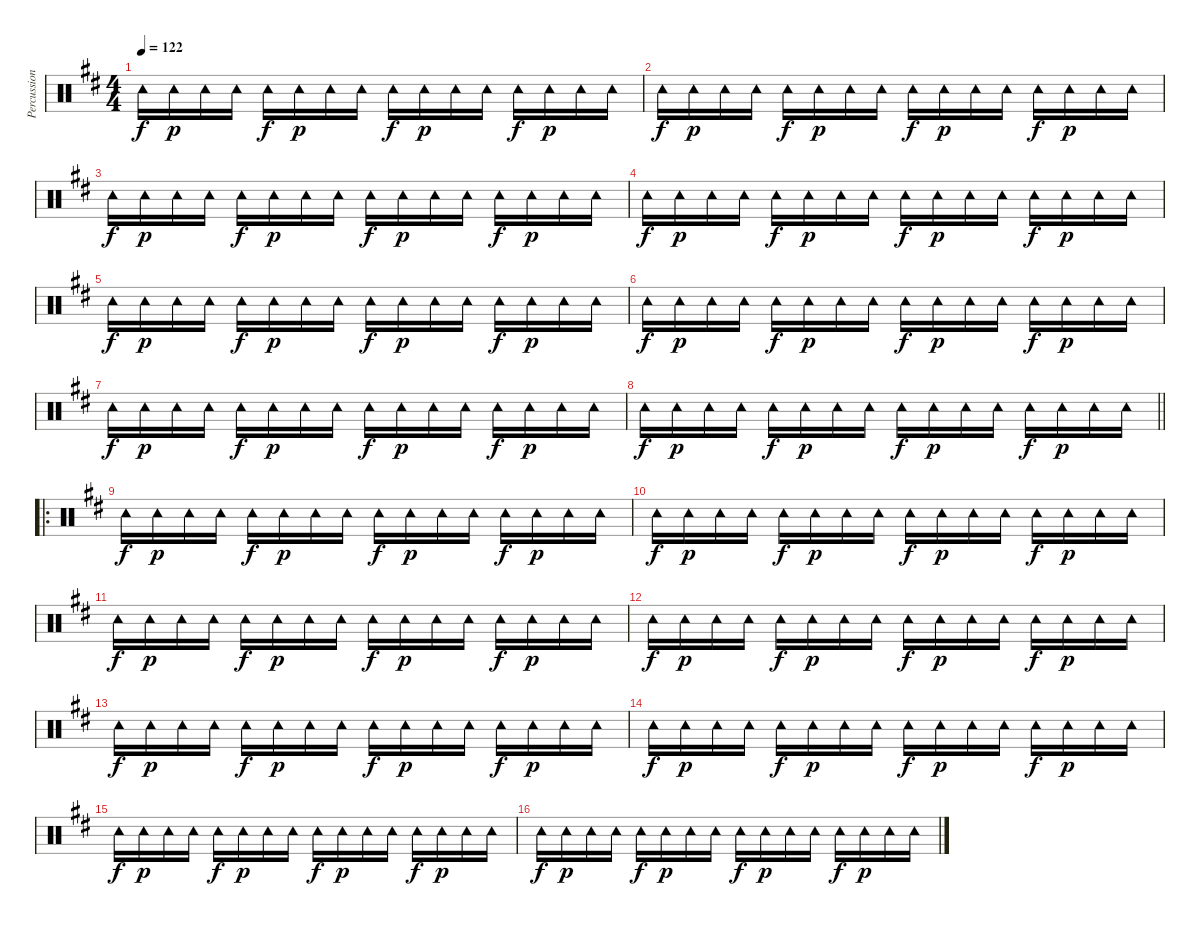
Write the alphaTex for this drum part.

\track ("Percussions" "Percussion") {instrument percussion}
\staff {score}
\articulation defaults
\ts (4 4)
\tempo 122
\clef neutral
\ks d "Tambourine (hit)".16{dy f} "Tambourine (hit)".16{dy p} "Tambourine (hit)".16 "Tambourine (hit)".16 "Tambourine (hit)".16{dy f} "Tambourine (hit)".16{dy p} "Tambourine (hit)".16 "Tambourine (hit)".16 "Tambourine (hit)".16{dy f} "Tambourine (hit)".16{dy p} "Tambourine (hit)".16 "Tambourine (hit)".16 "Tambourine (hit)".16{dy f} "Tambourine (hit)".16{dy p} "Tambourine (hit)".16 "Tambourine (hit)".16
|
"Tambourine (hit)".16{dy f} "Tambourine (hit)".16{dy p} "Tambourine (hit)".16 "Tambourine (hit)".16 "Tambourine (hit)".16{dy f} "Tambourine (hit)".16{dy p} "Tambourine (hit)".16 "Tambourine (hit)".16 "Tambourine (hit)".16{dy f} "Tambourine (hit)".16{dy p} "Tambourine (hit)".16 "Tambourine (hit)".16 "Tambourine (hit)".16{dy f} "Tambourine (hit)".16{dy p} "Tambourine (hit)".16 "Tambourine (hit)".16 |
"Tambourine (hit)".16{dy f} "Tambourine (hit)".16{dy p} "Tambourine (hit)".16 "Tambourine (hit)".16 "Tambourine (hit)".16{dy f} "Tambourine (hit)".16{dy p} "Tambourine (hit)".16 "Tambourine (hit)".16 "Tambourine (hit)".16{dy f} "Tambourine (hit)".16{dy p} "Tambourine (hit)".16 "Tambourine (hit)".16 "Tambourine (hit)".16{dy f} "Tambourine (hit)".16{dy p} "Tambourine (hit)".16 "Tambourine (hit)".16 |
"Tambourine (hit)".16{dy f} "Tambourine (hit)".16{dy p} "Tambourine (hit)".16 "Tambourine (hit)".16 "Tambourine (hit)".16{dy f} "Tambourine (hit)".16{dy p} "Tambourine (hit)".16 "Tambourine (hit)".16 "Tambourine (hit)".16{dy f} "Tambourine (hit)".16{dy p} "Tambourine (hit)".16 "Tambourine (hit)".16 "Tambourine (hit)".16{dy f} "Tambourine (hit)".16{dy p} "Tambourine (hit)".16 "Tambourine (hit)".16 |
"Tambourine (hit)".16{dy f} "Tambourine (hit)".16{dy p} "Tambourine (hit)".16 "Tambourine (hit)".16 "Tambourine (hit)".16{dy f} "Tambourine (hit)".16{dy p} "Tambourine (hit)".16 "Tambourine (hit)".16 "Tambourine (hit)".16{dy f} "Tambourine (hit)".16{dy p} "Tambourine (hit)".16 "Tambourine (hit)".16 "Tambourine (hit)".16{dy f} "Tambourine (hit)".16{dy p} "Tambourine (hit)".16 "Tambourine (hit)".16 |
"Tambourine (hit)".16{dy f} "Tambourine (hit)".16{dy p} "Tambourine (hit)".16 "Tambourine (hit)".16 "Tambourine (hit)".16{dy f} "Tambourine (hit)".16{dy p} "Tambourine (hit)".16 "Tambourine (hit)".16 "Tambourine (hit)".16{dy f} "Tambourine (hit)".16{dy p} "Tambourine (hit)".16 "Tambourine (hit)".16 "Tambourine (hit)".16{dy f} "Tambourine (hit)".16{dy p} "Tambourine (hit)".16 "Tambourine (hit)".16 |
"Tambourine (hit)".16{dy f} "Tambourine (hit)".16{dy p} "Tambourine (hit)".16 "Tambourine (hit)".16 "Tambourine (hit)".16{dy f} "Tambourine (hit)".16{dy p} "Tambourine (hit)".16 "Tambourine (hit)".16 "Tambourine (hit)".16{dy f} "Tambourine (hit)".16{dy p} "Tambourine (hit)".16 "Tambourine (hit)".16 "Tambourine (hit)".16{dy f} "Tambourine (hit)".16{dy p} "Tambourine (hit)".16 "Tambourine (hit)".16 |
\barLineRight lightlight "Tambourine (hit)".16{dy f} "Tambourine (hit)".16{dy p} "Tambourine (hit)".16 "Tambourine (hit)".16 "Tambourine (hit)".16{dy f} "Tambourine (hit)".16{dy p} "Tambourine (hit)".16 "Tambourine (hit)".16 "Tambourine (hit)".16{dy f} "Tambourine (hit)".16{dy p} "Tambourine (hit)".16 "Tambourine (hit)".16 "Tambourine (hit)".16{dy f} "Tambourine (hit)".16{dy p} "Tambourine (hit)".16 "Tambourine (hit)".16
|
\ro "Tambourine (hit)".16{dy f} "Tambourine (hit)".16{dy p} "Tambourine (hit)".16 "Tambourine (hit)".16 "Tambourine (hit)".16{dy f} "Tambourine (hit)".16{dy p} "Tambourine (hit)".16 "Tambourine (hit)".16 "Tambourine (hit)".16{dy f} "Tambourine (hit)".16{dy p} "Tambourine (hit)".16 "Tambourine (hit)".16 "Tambourine (hit)".16{dy f} "Tambourine (hit)".16{dy p} "Tambourine (hit)".16 "Tambourine (hit)".16
|
"Tambourine (hit)".16{dy f} "Tambourine (hit)".16{dy p} "Tambourine (hit)".16 "Tambourine (hit)".16 "Tambourine (hit)".16{dy f} "Tambourine (hit)".16{dy p} "Tambourine (hit)".16 "Tambourine (hit)".16 "Tambourine (hit)".16{dy f} "Tambourine (hit)".16{dy p} "Tambourine (hit)".16 "Tambourine (hit)".16 "Tambourine (hit)".16{dy f} "Tambourine (hit)".16{dy p} "Tambourine (hit)".16 "Tambourine (hit)".16 |
"Tambourine (hit)".16{dy f} "Tambourine (hit)".16{dy p} "Tambourine (hit)".16 "Tambourine (hit)".16 "Tambourine (hit)".16{dy f} "Tambourine (hit)".16{dy p} "Tambourine (hit)".16 "Tambourine (hit)".16 "Tambourine (hit)".16{dy f} "Tambourine (hit)".16{dy p} "Tambourine (hit)".16 "Tambourine (hit)".16 "Tambourine (hit)".16{dy f} "Tambourine (hit)".16{dy p} "Tambourine (hit)".16 "Tambourine (hit)".16 |
"Tambourine (hit)".16{dy f} "Tambourine (hit)".16{dy p} "Tambourine (hit)".16 "Tambourine (hit)".16 "Tambourine (hit)".16{dy f} "Tambourine (hit)".16{dy p} "Tambourine (hit)".16 "Tambourine (hit)".16 "Tambourine (hit)".16{dy f} "Tambourine (hit)".16{dy p} "Tambourine (hit)".16 "Tambourine (hit)".16 "Tambourine (hit)".16{dy f} "Tambourine (hit)".16{dy p} "Tambourine (hit)".16 "Tambourine (hit)".16 |
"Tambourine (hit)".16{dy f} "Tambourine (hit)".16{dy p} "Tambourine (hit)".16 "Tambourine (hit)".16 "Tambourine (hit)".16{dy f} "Tambourine (hit)".16{dy p} "Tambourine (hit)".16 "Tambourine (hit)".16 "Tambourine (hit)".16{dy f} "Tambourine (hit)".16{dy p} "Tambourine (hit)".16 "Tambourine (hit)".16 "Tambourine (hit)".16{dy f} "Tambourine (hit)".16{dy p} "Tambourine (hit)".16 "Tambourine (hit)".16 |
"Tambourine (hit)".16{dy f} "Tambourine (hit)".16{dy p} "Tambourine (hit)".16 "Tambourine (hit)".16 "Tambourine (hit)".16{dy f} "Tambourine (hit)".16{dy p} "Tambourine (hit)".16 "Tambourine (hit)".16 "Tambourine (hit)".16{dy f} "Tambourine (hit)".16{dy p} "Tambourine (hit)".16 "Tambourine (hit)".16 "Tambourine (hit)".16{dy f} "Tambourine (hit)".16{dy p} "Tambourine (hit)".16 "Tambourine (hit)".16 |
"Tambourine (hit)".16{dy f} "Tambourine (hit)".16{dy p} "Tambourine (hit)".16 "Tambourine (hit)".16 "Tambourine (hit)".16{dy f} "Tambourine (hit)".16{dy p} "Tambourine (hit)".16 "Tambourine (hit)".16 "Tambourine (hit)".16{dy f} "Tambourine (hit)".16{dy p} "Tambourine (hit)".16 "Tambourine (hit)".16 "Tambourine (hit)".16{dy f} "Tambourine (hit)".16{dy p} "Tambourine (hit)".16 "Tambourine (hit)".16 |
"Tambourine (hit)".16{dy f} "Tambourine (hit)".16{dy p} "Tambourine (hit)".16 "Tambourine (hit)".16 "Tambourine (hit)".16{dy f} "Tambourine (hit)".16{dy p} "Tambourine (hit)".16 "Tambourine (hit)".16 "Tambourine (hit)".16{dy f} "Tambourine (hit)".16{dy p} "Tambourine (hit)".16 "Tambourine (hit)".16 "Tambourine (hit)".16{dy f} "Tambourine (hit)".16{dy p} "Tambourine (hit)".16 "Tambourine (hit)".16
